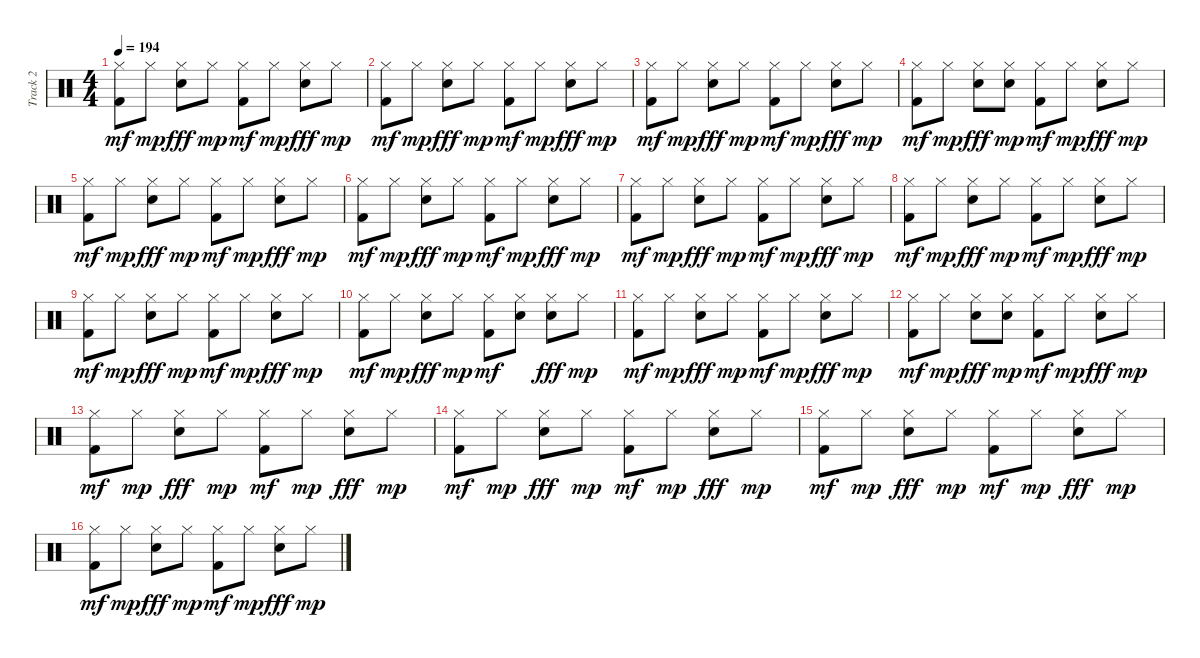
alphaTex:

\track ("Track 2" "Track 2") {instrument percussion}
\staff {score}
\articulation defaults
\ts (4 4)
\tempo 194
\clef neutral
\ks c
("Hi-Hat (closed)" "Kick (hit) 2").8{dy mf} "Hi-Hat (closed)".8{dy mp} ("Hi-Hat (closed)" "Snare (hit)").8{dy fff} "Hi-Hat (closed)".8{dy mp} ("Hi-Hat (closed)" "Kick (hit) 2").8{dy mf} "Hi-Hat (closed)".8{dy mp} ("Hi-Hat (closed)" "Snare (hit)").8{dy fff} "Hi-Hat (closed)".8{dy mp} |
("Hi-Hat (closed)" "Kick (hit) 2").8{dy mf} "Hi-Hat (closed)".8{dy mp} ("Hi-Hat (closed)" "Snare (hit)").8{dy fff} "Hi-Hat (closed)".8{dy mp} ("Hi-Hat (closed)" "Kick (hit) 2").8{dy mf} "Hi-Hat (closed)".8{dy mp} ("Hi-Hat (closed)" "Snare (hit)").8{dy fff} "Hi-Hat (closed)".8{dy mp} |
("Hi-Hat (closed)" "Kick (hit) 2").8{dy mf} "Hi-Hat (closed)".8{dy mp} ("Hi-Hat (closed)" "Snare (hit)").8{dy fff} "Hi-Hat (closed)".8{dy mp} ("Hi-Hat (closed)" "Kick (hit) 2").8{dy mf} "Hi-Hat (closed)".8{dy mp} ("Hi-Hat (closed)" "Snare (hit)").8{dy fff} "Hi-Hat (closed)".8{dy mp} |
("Hi-Hat (closed)" "Kick (hit) 2").8{dy mf} "Hi-Hat (closed)".8{dy mp} ("Hi-Hat (closed)" "Snare (hit)").8{dy fff} ("Hi-Hat (closed)" "Snare (hit)").8{dy mp} ("Hi-Hat (closed)" "Kick (hit) 2").8{dy mf} "Hi-Hat (closed)".8{dy mp} ("Hi-Hat (closed)" "Snare (hit)").8{dy fff} "Hi-Hat (closed)".8{dy mp} |
("Hi-Hat (closed)" "Kick (hit) 2").8{dy mf} "Hi-Hat (closed)".8{dy mp} ("Hi-Hat (closed)" "Snare (hit)").8{dy fff} "Hi-Hat (closed)".8{dy mp} ("Hi-Hat (closed)" "Kick (hit) 2").8{dy mf} "Hi-Hat (closed)".8{dy mp} ("Hi-Hat (closed)" "Snare (hit)").8{dy fff} "Hi-Hat (closed)".8{dy mp} |
("Hi-Hat (closed)" "Kick (hit) 2").8{dy mf} "Hi-Hat (closed)".8{dy mp} ("Hi-Hat (closed)" "Snare (hit)").8{dy fff} "Hi-Hat (closed)".8{dy mp} ("Hi-Hat (closed)" "Kick (hit) 2").8{dy mf} "Hi-Hat (closed)".8{dy mp} ("Hi-Hat (closed)" "Snare (hit)").8{dy fff} "Hi-Hat (closed)".8{dy mp} |
("Hi-Hat (closed)" "Kick (hit) 2").8{dy mf} "Hi-Hat (closed)".8{dy mp} ("Hi-Hat (closed)" "Snare (hit)").8{dy fff} "Hi-Hat (closed)".8{dy mp} ("Hi-Hat (closed)" "Kick (hit) 2").8{dy mf} "Hi-Hat (closed)".8{dy mp} ("Hi-Hat (closed)" "Snare (hit)").8{dy fff} "Hi-Hat (closed)".8{dy mp} |
("Hi-Hat (closed)" "Kick (hit) 2").8{dy mf} "Hi-Hat (closed)".8{dy mp} ("Hi-Hat (closed)" "Snare (hit)").8{dy fff} "Hi-Hat (closed)".8{dy mp} ("Hi-Hat (closed)" "Kick (hit) 2").8{dy mf} "Hi-Hat (closed)".8{dy mp} ("Hi-Hat (closed)" "Snare (hit)").8{dy fff} "Hi-Hat (closed)".8{dy mp} |
("Hi-Hat (closed)" "Kick (hit) 2").8{dy mf} "Hi-Hat (closed)".8{dy mp} ("Hi-Hat (closed)" "Snare (hit)").8{dy fff} "Hi-Hat (closed)".8{dy mp} ("Hi-Hat (closed)" "Kick (hit) 2").8{dy mf} "Hi-Hat (closed)".8{dy mp} ("Hi-Hat (closed)" "Snare (hit)").8{dy fff} "Hi-Hat (closed)".8{dy mp} |
("Hi-Hat (closed)" "Kick (hit) 2").8{dy mf} "Hi-Hat (closed)".8{dy mp} ("Hi-Hat (closed)" "Snare (hit)").8{dy fff} "Hi-Hat (closed)".8{dy mp} ("Hi-Hat (closed)" "Kick (hit) 2").8{dy mf} ("Hi-Hat (closed)" "Snare (hit)").8 ("Hi-Hat (closed)" "Snare (hit)").8{dy fff} "Hi-Hat (closed)".8{dy mp} |
("Hi-Hat (closed)" "Kick (hit) 2").8{dy mf} "Hi-Hat (closed)".8{dy mp} ("Hi-Hat (closed)" "Snare (hit)").8{dy fff} "Hi-Hat (closed)".8{dy mp} ("Hi-Hat (closed)" "Kick (hit) 2").8{dy mf} "Hi-Hat (closed)".8{dy mp} ("Hi-Hat (closed)" "Snare (hit)").8{dy fff} "Hi-Hat (closed)".8{dy mp} |
("Hi-Hat (closed)" "Kick (hit) 2").8{dy mf} "Hi-Hat (closed)".8{dy mp} ("Hi-Hat (closed)" "Snare (hit)").8{dy fff} ("Hi-Hat (closed)" "Snare (hit)").8{dy mp} ("Hi-Hat (closed)" "Kick (hit) 2").8{dy mf} "Hi-Hat (closed)".8{dy mp} ("Hi-Hat (closed)" "Snare (hit)").8{dy fff} "Hi-Hat (closed)".8{dy mp} |
("Hi-Hat (closed)" "Kick (hit) 2").8{dy mf} "Hi-Hat (closed)".8{dy mp} ("Hi-Hat (closed)" "Snare (hit)").8{dy fff} "Hi-Hat (closed)".8{dy mp} ("Hi-Hat (closed)" "Kick (hit) 2").8{dy mf} "Hi-Hat (closed)".8{dy mp} ("Hi-Hat (closed)" "Snare (hit)").8{dy fff} "Hi-Hat (closed)".8{dy mp} |
("Hi-Hat (closed)" "Kick (hit) 2").8{dy mf} "Hi-Hat (closed)".8{dy mp} ("Hi-Hat (closed)" "Snare (hit)").8{dy fff} "Hi-Hat (closed)".8{dy mp} ("Hi-Hat (closed)" "Kick (hit) 2").8{dy mf} "Hi-Hat (closed)".8{dy mp} ("Hi-Hat (closed)" "Snare (hit)").8{dy fff} "Hi-Hat (closed)".8{dy mp} |
("Hi-Hat (closed)" "Kick (hit) 2").8{dy mf} "Hi-Hat (closed)".8{dy mp} ("Hi-Hat (closed)" "Snare (hit)").8{dy fff} "Hi-Hat (closed)".8{dy mp} ("Hi-Hat (closed)" "Kick (hit) 2").8{dy mf} "Hi-Hat (closed)".8{dy mp} ("Hi-Hat (closed)" "Snare (hit)").8{dy fff} "Hi-Hat (closed)".8{dy mp} |
("Hi-Hat (closed)" "Kick (hit) 2").8{dy mf} "Hi-Hat (closed)".8{dy mp} ("Hi-Hat (closed)" "Snare (hit)").8{dy fff} "Hi-Hat (closed)".8{dy mp} ("Hi-Hat (closed)" "Kick (hit) 2").8{dy mf} "Hi-Hat (closed)".8{dy mp} ("Hi-Hat (closed)" "Snare (hit)").8{dy fff} "Hi-Hat (closed)".8{dy mp}
